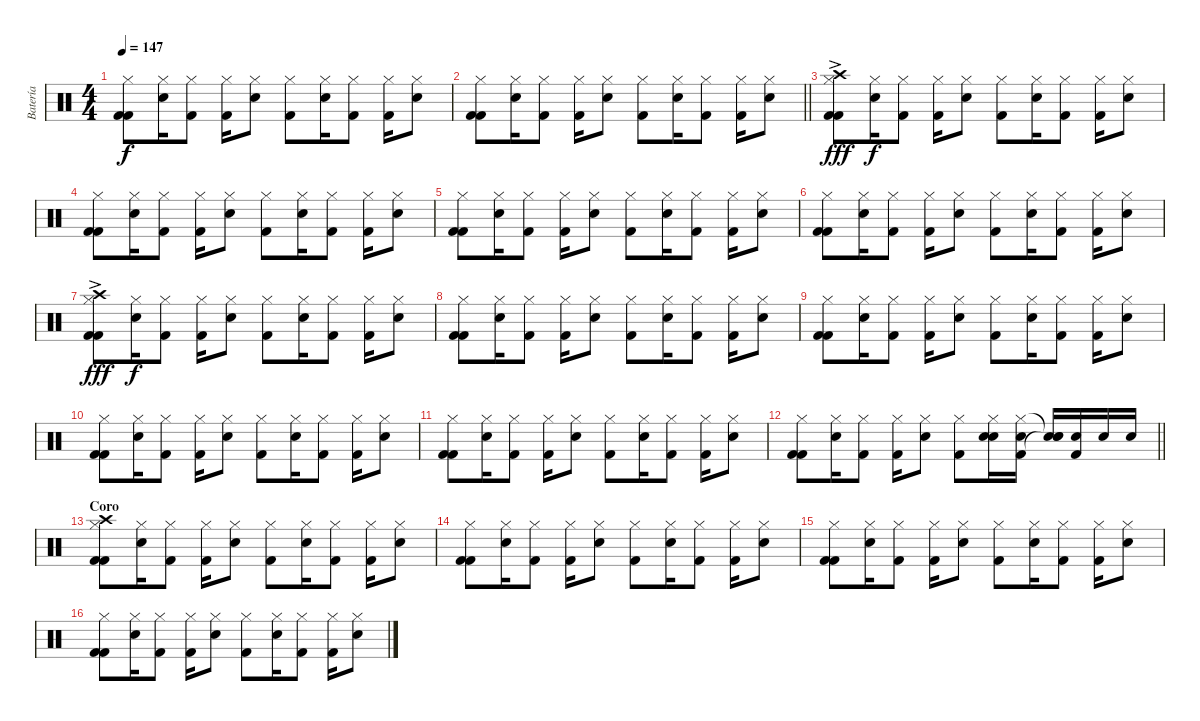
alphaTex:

\track ("Batería" "Batería") {instrument percussion}
\staff {score}
\articulation defaults
\ts (4 4)
\tempo 147
\clef neutral
\ks c
("Hi-Hat (closed)" "Kick (hit) 2" "Kick (hit) 2").8{dy f} ("Hi-Hat (closed)" "Electric Snare (hit)").16 ("Hi-Hat (closed)" "Kick (hit) 2").8 ("Hi-Hat (closed)" "Kick (hit) 2").16 ("Hi-Hat (closed)" "Electric Snare (hit)").8 ("Hi-Hat (closed)" "Kick (hit) 2").8 ("Hi-Hat (closed)" "Electric Snare (hit)").16 ("Hi-Hat (closed)" "Kick (hit) 2").8 ("Hi-Hat (closed)" "Kick (hit) 2").16 ("Hi-Hat (closed)" "Electric Snare (hit)").8 |
\barLineRight lightlight
("Hi-Hat (closed)" "Kick (hit) 2" "Kick (hit) 2").8 ("Hi-Hat (closed)" "Electric Snare (hit)").16 ("Hi-Hat (closed)" "Kick (hit) 2").8 ("Hi-Hat (closed)" "Kick (hit) 2").16 ("Hi-Hat (closed)" "Electric Snare (hit)").8 ("Hi-Hat (closed)" "Kick (hit) 2").8 ("Hi-Hat (closed)" "Electric Snare (hit)").16 ("Hi-Hat (closed)" "Kick (hit) 2").8 ("Hi-Hat (closed)" "Kick (hit) 2").16 ("Hi-Hat (closed)" "Electric Snare (hit)").8 |
\section ("" "")
("Crash high (hit)"{ac} "Hi-Hat (closed)" "Kick (hit) 2" "Kick (hit) 2").8{dy fff} ("Hi-Hat (closed)" "Electric Snare (hit)").16{dy f} ("Hi-Hat (closed)" "Kick (hit) 2").8 ("Hi-Hat (closed)" "Kick (hit) 2").16 ("Hi-Hat (closed)" "Electric Snare (hit)").8 ("Hi-Hat (closed)" "Kick (hit) 2").8 ("Hi-Hat (closed)" "Electric Snare (hit)").16 ("Hi-Hat (closed)" "Kick (hit) 2").8 ("Hi-Hat (closed)" "Kick (hit) 2").16 ("Hi-Hat (closed)" "Electric Snare (hit)").8 |
("Hi-Hat (closed)" "Kick (hit) 2" "Kick (hit) 2").8 ("Hi-Hat (closed)" "Electric Snare (hit)").16 ("Hi-Hat (closed)" "Kick (hit) 2").8 ("Hi-Hat (closed)" "Kick (hit) 2").16 ("Hi-Hat (closed)" "Electric Snare (hit)").8 ("Hi-Hat (closed)" "Kick (hit) 2").8 ("Hi-Hat (closed)" "Electric Snare (hit)").16 ("Hi-Hat (closed)" "Kick (hit) 2").8 ("Hi-Hat (closed)" "Kick (hit) 2").16 ("Hi-Hat (closed)" "Electric Snare (hit)").8 |
("Hi-Hat (closed)" "Kick (hit) 2" "Kick (hit) 2").8 ("Hi-Hat (closed)" "Electric Snare (hit)").16 ("Hi-Hat (closed)" "Kick (hit) 2").8 ("Hi-Hat (closed)" "Kick (hit) 2").16 ("Hi-Hat (closed)" "Electric Snare (hit)").8 ("Hi-Hat (closed)" "Kick (hit) 2").8 ("Hi-Hat (closed)" "Electric Snare (hit)").16 ("Hi-Hat (closed)" "Kick (hit) 2").8 ("Hi-Hat (closed)" "Kick (hit) 2").16 ("Hi-Hat (closed)" "Electric Snare (hit)").8 |
("Hi-Hat (closed)" "Kick (hit) 2" "Kick (hit) 2").8 ("Hi-Hat (closed)" "Electric Snare (hit)").16 ("Hi-Hat (closed)" "Kick (hit) 2").8 ("Hi-Hat (closed)" "Kick (hit) 2").16 ("Hi-Hat (closed)" "Electric Snare (hit)").8 ("Hi-Hat (closed)" "Kick (hit) 2").8 ("Hi-Hat (closed)" "Electric Snare (hit)").16 ("Hi-Hat (closed)" "Kick (hit) 2").8 ("Hi-Hat (closed)" "Kick (hit) 2").16 ("Hi-Hat (closed)" "Electric Snare (hit)").8 |
("Crash high (hit)"{ac} "Hi-Hat (closed)" "Kick (hit) 2" "Kick (hit) 2").8{dy fff} ("Hi-Hat (closed)" "Electric Snare (hit)").16{dy f} ("Hi-Hat (closed)" "Kick (hit) 2").8 ("Hi-Hat (closed)" "Kick (hit) 2").16 ("Hi-Hat (closed)" "Electric Snare (hit)").8 ("Hi-Hat (closed)" "Kick (hit) 2").8 ("Hi-Hat (closed)" "Electric Snare (hit)").16 ("Hi-Hat (closed)" "Kick (hit) 2").8 ("Hi-Hat (closed)" "Kick (hit) 2").16 ("Hi-Hat (closed)" "Electric Snare (hit)").8 |
("Hi-Hat (closed)" "Kick (hit) 2" "Kick (hit) 2").8 ("Hi-Hat (closed)" "Electric Snare (hit)").16 ("Hi-Hat (closed)" "Kick (hit) 2").8 ("Hi-Hat (closed)" "Kick (hit) 2").16 ("Hi-Hat (closed)" "Electric Snare (hit)").8 ("Hi-Hat (closed)" "Kick (hit) 2").8 ("Hi-Hat (closed)" "Electric Snare (hit)").16 ("Hi-Hat (closed)" "Kick (hit) 2").8 ("Hi-Hat (closed)" "Kick (hit) 2").16 ("Hi-Hat (closed)" "Electric Snare (hit)").8 |
("Hi-Hat (closed)" "Kick (hit) 2" "Kick (hit) 2").8 ("Hi-Hat (closed)" "Electric Snare (hit)").16 ("Hi-Hat (closed)" "Kick (hit) 2").8 ("Hi-Hat (closed)" "Kick (hit) 2").16 ("Hi-Hat (closed)" "Electric Snare (hit)").8 ("Hi-Hat (closed)" "Kick (hit) 2").8 ("Hi-Hat (closed)" "Electric Snare (hit)").16 ("Hi-Hat (closed)" "Kick (hit) 2").8 ("Hi-Hat (closed)" "Kick (hit) 2").16 ("Hi-Hat (closed)" "Electric Snare (hit)").8 |
("Hi-Hat (closed)" "Kick (hit) 2" "Kick (hit) 2").8 ("Hi-Hat (closed)" "Electric Snare (hit)").16 ("Hi-Hat (closed)" "Kick (hit) 2").8 ("Hi-Hat (closed)" "Kick (hit) 2").16 ("Hi-Hat (closed)" "Electric Snare (hit)").8 ("Hi-Hat (closed)" "Kick (hit) 2").8 ("Hi-Hat (closed)" "Electric Snare (hit)").16 ("Hi-Hat (closed)" "Kick (hit) 2").8 ("Hi-Hat (closed)" "Kick (hit) 2").16 ("Hi-Hat (closed)" "Electric Snare (hit)").8 |
("Hi-Hat (closed)" "Kick (hit) 2" "Kick (hit) 2").8 ("Hi-Hat (closed)" "Electric Snare (hit)").16 ("Hi-Hat (closed)" "Kick (hit) 2").8 ("Hi-Hat (closed)" "Kick (hit) 2").16 ("Hi-Hat (closed)" "Electric Snare (hit)").8 ("Hi-Hat (closed)" "Kick (hit) 2").8 ("Hi-Hat (closed)" "Electric Snare (hit)").16 ("Hi-Hat (closed)" "Kick (hit) 2").8 ("Hi-Hat (closed)" "Kick (hit) 2").16 ("Hi-Hat (closed)" "Electric Snare (hit)").8 |
\barLineRight lightlight
("Hi-Hat (closed)" "Kick (hit) 2" "Kick (hit) 2").8 ("Hi-Hat (closed)" "Electric Snare (hit)").16 ("Hi-Hat (closed)" "Kick (hit) 2").8 ("Hi-Hat (closed)" "Kick (hit) 2").16 ("Hi-Hat (closed)" "Electric Snare (hit)").8 ("Hi-Hat (closed)" "Kick (hit) 2").8 ("Snare (hit) 2" "Hi-Hat (closed)" "Electric Snare (hit)").16 ("Snare (hit) 2" "Hi-Hat (closed)" "Kick (hit) 2").16 ("Snare (hit) 2" "Snare (hit)"{t} "Snare (hit)"{t}).16 ("Snare (hit) 2" "Kick (hit) 2").16 "Snare (hit) 2".16 "Snare (hit) 2".16 |
\section ("" "Coro")
("Crash high (hit)" "Hi-Hat (closed)" "Kick (hit) 2" "Kick (hit) 2").8 ("Hi-Hat (closed)" "Electric Snare (hit)").16 ("Hi-Hat (closed)" "Kick (hit) 2").8 ("Hi-Hat (closed)" "Kick (hit) 2").16 ("Hi-Hat (closed)" "Electric Snare (hit)").8 ("Hi-Hat (closed)" "Kick (hit) 2").8 ("Hi-Hat (closed)" "Electric Snare (hit)").16 ("Hi-Hat (closed)" "Kick (hit) 2").8 ("Hi-Hat (closed)" "Kick (hit) 2").16 ("Hi-Hat (closed)" "Electric Snare (hit)").8 |
("Hi-Hat (closed)" "Kick (hit) 2" "Kick (hit) 2").8 ("Hi-Hat (closed)" "Electric Snare (hit)").16 ("Hi-Hat (closed)" "Kick (hit) 2").8 ("Hi-Hat (closed)" "Kick (hit) 2").16 ("Hi-Hat (closed)" "Electric Snare (hit)").8 ("Hi-Hat (closed)" "Kick (hit) 2").8 ("Hi-Hat (closed)" "Electric Snare (hit)").16 ("Hi-Hat (closed)" "Kick (hit) 2").8 ("Hi-Hat (closed)" "Kick (hit) 2").16 ("Hi-Hat (closed)" "Electric Snare (hit)").8 |
("Hi-Hat (closed)" "Kick (hit) 2" "Kick (hit) 2").8 ("Hi-Hat (closed)" "Electric Snare (hit)").16 ("Hi-Hat (closed)" "Kick (hit) 2").8 ("Hi-Hat (closed)" "Kick (hit) 2").16 ("Hi-Hat (closed)" "Electric Snare (hit)").8 ("Hi-Hat (closed)" "Kick (hit) 2").8 ("Hi-Hat (closed)" "Electric Snare (hit)").16 ("Hi-Hat (closed)" "Kick (hit) 2").8 ("Hi-Hat (closed)" "Kick (hit) 2").16 ("Hi-Hat (closed)" "Electric Snare (hit)").8 |
("Hi-Hat (closed)" "Kick (hit) 2" "Kick (hit) 2").8 ("Hi-Hat (closed)" "Electric Snare (hit)").16 ("Hi-Hat (closed)" "Kick (hit) 2").8 ("Hi-Hat (closed)" "Kick (hit) 2").16 ("Hi-Hat (closed)" "Electric Snare (hit)").8 ("Hi-Hat (closed)" "Kick (hit) 2").8 ("Hi-Hat (closed)" "Electric Snare (hit)").16 ("Hi-Hat (closed)" "Kick (hit) 2").8 ("Hi-Hat (closed)" "Kick (hit) 2").16 ("Hi-Hat (closed)" "Electric Snare (hit)").8
